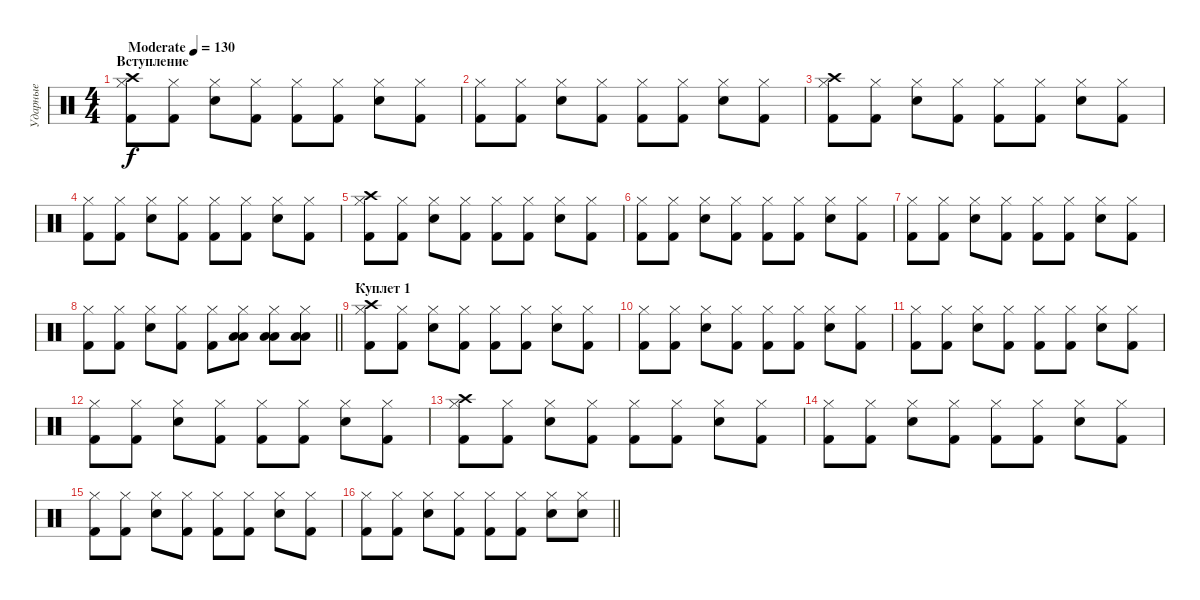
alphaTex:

\track ("Ударные" "Ударные") {instrument percussion}
\staff {score}
\articulation defaults
\ts (4 4)
\section ("" "Вступление")
\tempo (130 "Moderate")
\clef neutral
\ks c
("Kick (hit) 2" "Crash high (hit)" "Hi-Hat (closed)").8{dy f} ("Kick (hit) 2" "Hi-Hat (closed)").8 ("Snare (hit) 2" "Hi-Hat (closed)").8 ("Kick (hit) 2" "Hi-Hat (closed)").8 ("Kick (hit) 2" "Hi-Hat (closed)").8 ("Kick (hit) 2" "Hi-Hat (closed)").8 ("Snare (hit) 2" "Hi-Hat (closed)").8 ("Kick (hit) 2" "Hi-Hat (closed)").8 |
("Kick (hit) 2" "Hi-Hat (closed)").8 ("Kick (hit) 2" "Hi-Hat (closed)").8 ("Snare (hit) 2" "Hi-Hat (closed)").8 ("Kick (hit) 2" "Hi-Hat (closed)").8 ("Kick (hit) 2" "Hi-Hat (closed)").8 ("Kick (hit) 2" "Hi-Hat (closed)").8 ("Snare (hit) 2" "Hi-Hat (closed)").8 ("Kick (hit) 2" "Hi-Hat (closed)").8 |
("Kick (hit) 2" "Crash high (hit)" "Hi-Hat (closed)").8 ("Kick (hit) 2" "Hi-Hat (closed)").8 ("Snare (hit) 2" "Hi-Hat (closed)").8 ("Kick (hit) 2" "Hi-Hat (closed)").8 ("Kick (hit) 2" "Hi-Hat (closed)").8 ("Kick (hit) 2" "Hi-Hat (closed)").8 ("Snare (hit) 2" "Hi-Hat (closed)").8 ("Kick (hit) 2" "Hi-Hat (closed)").8 |
("Kick (hit) 2" "Hi-Hat (closed)").8 ("Kick (hit) 2" "Hi-Hat (closed)").8 ("Snare (hit) 2" "Hi-Hat (closed)").8 ("Kick (hit) 2" "Hi-Hat (closed)").8 ("Kick (hit) 2" "Hi-Hat (closed)").8 ("Kick (hit) 2" "Hi-Hat (closed)").8 ("Snare (hit) 2" "Hi-Hat (closed)").8 ("Kick (hit) 2" "Hi-Hat (closed)").8 |
("Kick (hit) 2" "Crash high (hit)" "Hi-Hat (closed)").8 ("Kick (hit) 2" "Hi-Hat (closed)").8 ("Snare (hit) 2" "Hi-Hat (closed)").8 ("Kick (hit) 2" "Hi-Hat (closed)").8 ("Kick (hit) 2" "Hi-Hat (closed)").8 ("Kick (hit) 2" "Hi-Hat (closed)").8 ("Snare (hit) 2" "Hi-Hat (closed)").8 ("Kick (hit) 2" "Hi-Hat (closed)").8 |
("Kick (hit) 2" "Hi-Hat (closed)").8 ("Kick (hit) 2" "Hi-Hat (closed)").8 ("Snare (hit) 2" "Hi-Hat (closed)").8 ("Kick (hit) 2" "Hi-Hat (closed)").8 ("Kick (hit) 2" "Hi-Hat (closed)").8 ("Kick (hit) 2" "Hi-Hat (closed)").8 ("Snare (hit) 2" "Hi-Hat (closed)").8 ("Kick (hit) 2" "Hi-Hat (closed)").8 |
("Kick (hit) 2" "Hi-Hat (closed)").8 ("Kick (hit) 2" "Hi-Hat (closed)").8 ("Snare (hit) 2" "Hi-Hat (closed)").8 ("Kick (hit) 2" "Hi-Hat (closed)").8 ("Kick (hit) 2" "Hi-Hat (closed)").8 ("Kick (hit) 2" "Hi-Hat (closed)").8 ("Snare (hit) 2" "Hi-Hat (closed)").8 ("Kick (hit) 2" "Hi-Hat (closed)").8 |
\barLineRight lightlight
("Kick (hit) 2" "Hi-Hat (closed)").8 ("Kick (hit) 2" "Hi-Hat (closed)").8 ("Snare (hit) 2" "Hi-Hat (closed)").8 ("Kick (hit) 2" "Hi-Hat (closed)").8 ("Kick (hit) 2" "Hi-Hat (closed)").8 ("Low Tom (hit)" "Low Tom (hit)" "Hi-Hat (closed)").8 ("Low Tom (hit)" "Low Tom (hit)" "Hi-Hat (closed)").8 ("Low Tom (hit)" "Low Tom (hit)" "Hi-Hat (closed)").8 |
\section ("" "Куплет 1")
("Kick (hit) 2" "Crash high (hit)" "Hi-Hat (closed)").8 ("Kick (hit) 2" "Hi-Hat (closed)").8 ("Snare (hit) 2" "Hi-Hat (closed)").8 ("Kick (hit) 2" "Hi-Hat (closed)").8 ("Kick (hit) 2" "Hi-Hat (closed)").8 ("Kick (hit) 2" "Hi-Hat (closed)").8 ("Snare (hit) 2" "Hi-Hat (closed)").8 ("Kick (hit) 2" "Hi-Hat (closed)").8 |
("Kick (hit) 2" "Hi-Hat (closed)").8 ("Kick (hit) 2" "Hi-Hat (closed)").8 ("Snare (hit) 2" "Hi-Hat (closed)").8 ("Kick (hit) 2" "Hi-Hat (closed)").8 ("Kick (hit) 2" "Hi-Hat (closed)").8 ("Kick (hit) 2" "Hi-Hat (closed)").8 ("Snare (hit) 2" "Hi-Hat (closed)").8 ("Kick (hit) 2" "Hi-Hat (closed)").8 |
("Kick (hit) 2" "Hi-Hat (closed)").8 ("Kick (hit) 2" "Hi-Hat (closed)").8 ("Snare (hit) 2" "Hi-Hat (closed)").8 ("Kick (hit) 2" "Hi-Hat (closed)").8 ("Kick (hit) 2" "Hi-Hat (closed)").8 ("Kick (hit) 2" "Hi-Hat (closed)").8 ("Snare (hit) 2" "Hi-Hat (closed)").8 ("Kick (hit) 2" "Hi-Hat (closed)").8 |
("Kick (hit) 2" "Hi-Hat (closed)").8 ("Kick (hit) 2" "Hi-Hat (closed)").8 ("Snare (hit) 2" "Hi-Hat (closed)").8 ("Kick (hit) 2" "Hi-Hat (closed)").8 ("Kick (hit) 2" "Hi-Hat (closed)").8 ("Kick (hit) 2" "Hi-Hat (closed)").8 ("Snare (hit) 2" "Hi-Hat (closed)").8 ("Kick (hit) 2" "Hi-Hat (closed)").8 |
("Kick (hit) 2" "Crash high (hit)" "Hi-Hat (closed)").8 ("Kick (hit) 2" "Hi-Hat (closed)").8 ("Snare (hit) 2" "Hi-Hat (closed)").8 ("Kick (hit) 2" "Hi-Hat (closed)").8 ("Kick (hit) 2" "Hi-Hat (closed)").8 ("Kick (hit) 2" "Hi-Hat (closed)").8 ("Snare (hit) 2" "Hi-Hat (closed)").8 ("Kick (hit) 2" "Hi-Hat (closed)").8 |
("Kick (hit) 2" "Hi-Hat (closed)").8 ("Kick (hit) 2" "Hi-Hat (closed)").8 ("Snare (hit) 2" "Hi-Hat (closed)").8 ("Kick (hit) 2" "Hi-Hat (closed)").8 ("Kick (hit) 2" "Hi-Hat (closed)").8 ("Kick (hit) 2" "Hi-Hat (closed)").8 ("Snare (hit) 2" "Hi-Hat (closed)").8 ("Kick (hit) 2" "Hi-Hat (closed)").8 |
("Kick (hit) 2" "Hi-Hat (closed)").8 ("Kick (hit) 2" "Hi-Hat (closed)").8 ("Snare (hit) 2" "Hi-Hat (closed)").8 ("Kick (hit) 2" "Hi-Hat (closed)").8 ("Kick (hit) 2" "Hi-Hat (closed)").8 ("Kick (hit) 2" "Hi-Hat (closed)").8 ("Snare (hit) 2" "Hi-Hat (closed)").8 ("Kick (hit) 2" "Hi-Hat (closed)").8 |
\barLineRight lightlight
("Kick (hit) 2" "Hi-Hat (closed)").8 ("Kick (hit) 2" "Hi-Hat (closed)").8 ("Snare (hit) 2" "Hi-Hat (closed)").8 ("Kick (hit) 2" "Hi-Hat (closed)").8 ("Kick (hit) 2" "Hi-Hat (closed)").8 ("Kick (hit) 2" "Hi-Hat (closed)").8 ("Snare (hit) 2" "Hi-Hat (closed)").8 ("Snare (hit) 2" "Hi-Hat (closed)").8
